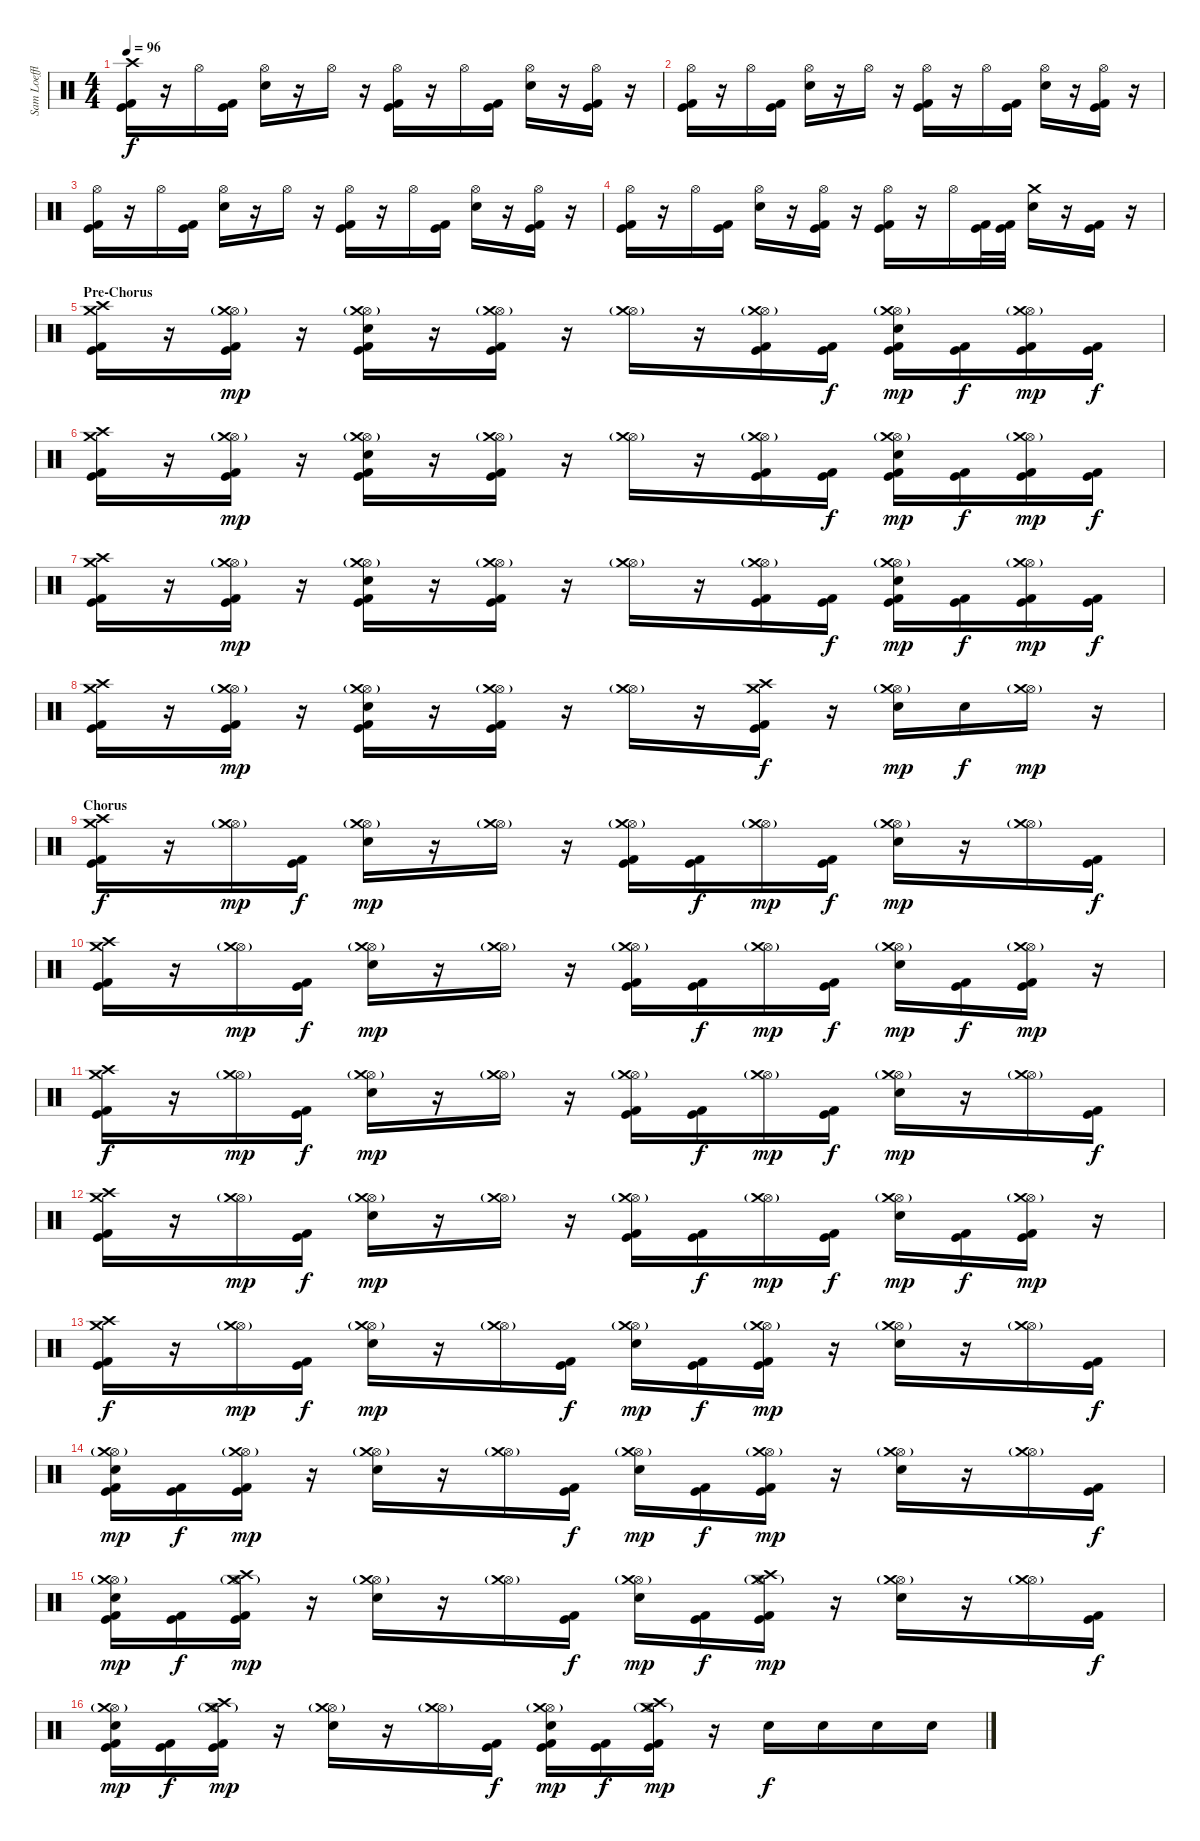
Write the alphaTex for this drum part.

\track ("Sam Loeffler - Drums" "Sam Loeffl") {instrument percussion}
\staff {score}
\articulation defaults
\ts (4 4)
\tempo 96
\clef neutral
\ks c
("Crash high (hit)" "Kick (hit)" "Kick (hit) 2").16{dy f} r.16 "Hi-Hat (open)".16 ("Kick (hit)" "Kick (hit) 2").16 ("Hi-Hat (open)" "Electric Snare (hit)").16 r.16 "Hi-Hat (open)".16 r.16 ("Hi-Hat (open)" "Kick (hit)" "Kick (hit) 2").16 r.16 "Hi-Hat (open)".16 ("Kick (hit)" "Kick (hit) 2").16 ("Hi-Hat (open)" "Electric Snare (hit)").16 r.16 ("Hi-Hat (open)" "Kick (hit)" "Kick (hit) 2").16 r.16 |
("Hi-Hat (open)" "Kick (hit)" "Kick (hit) 2").16 r.16 "Hi-Hat (open)".16 ("Kick (hit)" "Kick (hit) 2").16 ("Hi-Hat (open)" "Electric Snare (hit)").16 r.16 "Hi-Hat (open)".16 r.16 ("Hi-Hat (open)" "Kick (hit)" "Kick (hit) 2").16 r.16 "Hi-Hat (open)".16 ("Kick (hit)" "Kick (hit) 2").16 ("Hi-Hat (open)" "Electric Snare (hit)").16 r.16 ("Hi-Hat (open)" "Kick (hit)" "Kick (hit) 2").16 r.16 |
("Hi-Hat (open)" "Kick (hit)" "Kick (hit) 2").16 r.16 "Hi-Hat (open)".16 ("Kick (hit)" "Kick (hit) 2").16 ("Hi-Hat (open)" "Electric Snare (hit)").16 r.16 "Hi-Hat (open)".16 r.16 ("Hi-Hat (open)" "Kick (hit)" "Kick (hit) 2").16 r.16 "Hi-Hat (open)".16 ("Kick (hit)" "Kick (hit) 2").16 ("Hi-Hat (open)" "Electric Snare (hit)").16 r.16 ("Hi-Hat (open)" "Kick (hit)" "Kick (hit) 2").16 r.16 |
("Hi-Hat (open)" "Kick (hit)" "Kick (hit) 2").16 r.16 "Hi-Hat (open)".16 ("Kick (hit)" "Kick (hit) 2").16 ("Hi-Hat (open)" "Electric Snare (hit)").16 r.16 ("Hi-Hat (open)" "Kick (hit)" "Kick (hit) 2").16 r.16 ("Hi-Hat (open)" "Kick (hit)" "Kick (hit) 2").16 r.16 "Hi-Hat (open)".16 ("Kick (hit)" "Kick (hit) 2").32 ("Kick (hit)" "Kick (hit) 2").32 ("Crash medium (hit)" "Electric Snare (hit)").16 r.16 ("Kick (hit)" "Kick (hit) 2").16 r.16 |
\section ("" "Pre-Chorus")
("Crash high (hit)" "Crash medium (hit)" "Kick (hit)" "Kick (hit) 2").16 r.16 ("Hi-Hat (open)" "Crash medium (hit)"{g} "Kick (hit)" "Kick (hit) 2").16{dy mp} r.16 ("Hi-Hat (open)" "Crash medium (hit)"{g} "Electric Snare (hit)" "Kick (hit)" "Kick (hit) 2").16 r.16 ("Hi-Hat (open)" "Crash medium (hit)"{g} "Kick (hit)" "Kick (hit) 2").16 r.16 ("Hi-Hat (open)" "Crash medium (hit)"{g}).16 r.16 ("Hi-Hat (open)" "Crash medium (hit)"{g} "Kick (hit)" "Kick (hit) 2").16 ("Kick (hit)" "Kick (hit) 2").16{dy f} ("Hi-Hat (open)" "Crash medium (hit)"{g} "Electric Snare (hit)" "Kick (hit)" "Kick (hit) 2").16{dy mp} ("Kick (hit)" "Kick (hit) 2").16{dy f} ("Hi-Hat (open)" "Crash medium (hit)"{g} "Kick (hit)" "Kick (hit) 2").16{dy mp} ("Kick (hit)" "Kick (hit) 2").16{dy f} |
("Crash high (hit)" "Crash medium (hit)" "Kick (hit)" "Kick (hit) 2").16 r.16 ("Hi-Hat (open)" "Crash medium (hit)"{g} "Kick (hit)" "Kick (hit) 2").16{dy mp} r.16 ("Hi-Hat (open)" "Crash medium (hit)"{g} "Electric Snare (hit)" "Kick (hit)" "Kick (hit) 2").16 r.16 ("Hi-Hat (open)" "Crash medium (hit)"{g} "Kick (hit)" "Kick (hit) 2").16 r.16 ("Hi-Hat (open)" "Crash medium (hit)"{g}).16 r.16 ("Hi-Hat (open)" "Crash medium (hit)"{g} "Kick (hit)" "Kick (hit) 2").16 ("Kick (hit)" "Kick (hit) 2").16{dy f} ("Hi-Hat (open)" "Crash medium (hit)"{g} "Electric Snare (hit)" "Kick (hit)" "Kick (hit) 2").16{dy mp} ("Kick (hit)" "Kick (hit) 2").16{dy f} ("Hi-Hat (open)" "Crash medium (hit)"{g} "Kick (hit)" "Kick (hit) 2").16{dy mp} ("Kick (hit)" "Kick (hit) 2").16{dy f} |
("Crash high (hit)" "Crash medium (hit)" "Kick (hit)" "Kick (hit) 2").16 r.16 ("Hi-Hat (open)" "Crash medium (hit)"{g} "Kick (hit)" "Kick (hit) 2").16{dy mp} r.16 ("Hi-Hat (open)" "Crash medium (hit)"{g} "Electric Snare (hit)" "Kick (hit)" "Kick (hit) 2").16 r.16 ("Hi-Hat (open)" "Crash medium (hit)"{g} "Kick (hit)" "Kick (hit) 2").16 r.16 ("Hi-Hat (open)" "Crash medium (hit)"{g}).16 r.16 ("Hi-Hat (open)" "Crash medium (hit)"{g} "Kick (hit)" "Kick (hit) 2").16 ("Kick (hit)" "Kick (hit) 2").16{dy f} ("Hi-Hat (open)" "Crash medium (hit)"{g} "Electric Snare (hit)" "Kick (hit)" "Kick (hit) 2").16{dy mp} ("Kick (hit)" "Kick (hit) 2").16{dy f} ("Hi-Hat (open)" "Crash medium (hit)"{g} "Kick (hit)" "Kick (hit) 2").16{dy mp} ("Kick (hit)" "Kick (hit) 2").16{dy f} |
("Crash high (hit)" "Crash medium (hit)" "Kick (hit)" "Kick (hit) 2").16 r.16 ("Hi-Hat (open)" "Crash medium (hit)"{g} "Kick (hit)" "Kick (hit) 2").16{dy mp} r.16 ("Hi-Hat (open)" "Crash medium (hit)"{g} "Electric Snare (hit)" "Kick (hit)" "Kick (hit) 2").16 r.16 ("Hi-Hat (open)" "Crash medium (hit)"{g} "Kick (hit)" "Kick (hit) 2").16 r.16 ("Hi-Hat (open)" "Crash medium (hit)"{g}).16 r.16 ("Crash high (hit)" "Crash medium (hit)" "Kick (hit)" "Kick (hit) 2").16{dy f} r.16 ("Hi-Hat (open)" "Crash medium (hit)"{g} "Electric Snare (hit)").16{dy mp} "Electric Snare (hit)".16{dy f} ("Hi-Hat (open)" "Crash medium (hit)"{g}).16{dy mp} r.16 |
\section ("" "Chorus")
("Crash high (hit)" "Crash medium (hit)" "Kick (hit)" "Kick (hit) 2").16{dy f} r.16 ("Hi-Hat (open)" "Crash medium (hit)"{g}).16{dy mp} ("Kick (hit)" "Kick (hit) 2").16{dy f} ("Hi-Hat (open)" "Crash medium (hit)"{g} "Electric Snare (hit)").16{dy mp} r.16 ("Hi-Hat (open)" "Crash medium (hit)"{g}).16 r.16 ("Hi-Hat (open)" "Crash medium (hit)"{g} "Kick (hit)" "Kick (hit) 2").16 ("Kick (hit)" "Kick (hit) 2").16{dy f} ("Hi-Hat (open)" "Crash medium (hit)"{g}).16{dy mp} ("Kick (hit)" "Kick (hit) 2").16{dy f} ("Hi-Hat (open)" "Crash medium (hit)"{g} "Electric Snare (hit)").16{dy mp} r.16 ("Hi-Hat (open)" "Crash medium (hit)"{g}).16 ("Kick (hit)" "Kick (hit) 2").16{dy f} |
("Crash high (hit)" "Crash medium (hit)" "Kick (hit)" "Kick (hit) 2").16 r.16 ("Hi-Hat (open)" "Crash medium (hit)"{g}).16{dy mp} ("Kick (hit)" "Kick (hit) 2").16{dy f} ("Hi-Hat (open)" "Crash medium (hit)"{g} "Electric Snare (hit)").16{dy mp} r.16 ("Hi-Hat (open)" "Crash medium (hit)"{g}).16 r.16 ("Hi-Hat (open)" "Crash medium (hit)"{g} "Kick (hit)" "Kick (hit) 2").16 ("Kick (hit)" "Kick (hit) 2").16{dy f} ("Hi-Hat (open)" "Crash medium (hit)"{g}).16{dy mp} ("Kick (hit)" "Kick (hit) 2").16{dy f} ("Hi-Hat (open)" "Crash medium (hit)"{g} "Electric Snare (hit)").16{dy mp} ("Kick (hit)" "Kick (hit) 2").16{dy f} ("Hi-Hat (open)" "Crash medium (hit)"{g} "Kick (hit)" "Kick (hit) 2").16{dy mp} r.16 |
("Crash high (hit)" "Crash medium (hit)" "Kick (hit)" "Kick (hit) 2").16{dy f} r.16 ("Hi-Hat (open)" "Crash medium (hit)"{g}).16{dy mp} ("Kick (hit)" "Kick (hit) 2").16{dy f} ("Hi-Hat (open)" "Crash medium (hit)"{g} "Electric Snare (hit)").16{dy mp} r.16 ("Hi-Hat (open)" "Crash medium (hit)"{g}).16 r.16 ("Hi-Hat (open)" "Crash medium (hit)"{g} "Kick (hit)" "Kick (hit) 2").16 ("Kick (hit)" "Kick (hit) 2").16{dy f} ("Hi-Hat (open)" "Crash medium (hit)"{g}).16{dy mp} ("Kick (hit)" "Kick (hit) 2").16{dy f} ("Hi-Hat (open)" "Crash medium (hit)"{g} "Electric Snare (hit)").16{dy mp} r.16 ("Hi-Hat (open)" "Crash medium (hit)"{g}).16 ("Kick (hit)" "Kick (hit) 2").16{dy f} |
("Crash high (hit)" "Crash medium (hit)" "Kick (hit)" "Kick (hit) 2").16 r.16 ("Hi-Hat (open)" "Crash medium (hit)"{g}).16{dy mp} ("Kick (hit)" "Kick (hit) 2").16{dy f} ("Hi-Hat (open)" "Crash medium (hit)"{g} "Electric Snare (hit)").16{dy mp} r.16 ("Hi-Hat (open)" "Crash medium (hit)"{g}).16 r.16 ("Hi-Hat (open)" "Crash medium (hit)"{g} "Kick (hit)" "Kick (hit) 2").16 ("Kick (hit)" "Kick (hit) 2").16{dy f} ("Hi-Hat (open)" "Crash medium (hit)"{g}).16{dy mp} ("Kick (hit)" "Kick (hit) 2").16{dy f} ("Hi-Hat (open)" "Crash medium (hit)"{g} "Electric Snare (hit)").16{dy mp} ("Kick (hit)" "Kick (hit) 2").16{dy f} ("Hi-Hat (open)" "Crash medium (hit)"{g} "Kick (hit)" "Kick (hit) 2").16{dy mp} r.16 |
("Crash high (hit)" "Crash medium (hit)" "Kick (hit)" "Kick (hit) 2").16{dy f} r.16 ("Hi-Hat (open)" "Crash medium (hit)"{g}).16{dy mp} ("Kick (hit)" "Kick (hit) 2").16{dy f} ("Hi-Hat (open)" "Crash medium (hit)"{g} "Electric Snare (hit)").16{dy mp} r.16 ("Hi-Hat (open)" "Crash medium (hit)"{g}).16 ("Kick (hit)" "Kick (hit) 2").16{dy f} ("Hi-Hat (open)" "Crash medium (hit)"{g} "Electric Snare (hit)").16{dy mp} ("Kick (hit)" "Kick (hit) 2").16{dy f} ("Hi-Hat (open)" "Crash medium (hit)"{g} "Kick (hit)" "Kick (hit) 2").16{dy mp} r.16 ("Hi-Hat (open)" "Crash medium (hit)"{g} "Electric Snare (hit)").16 r.16 ("Hi-Hat (open)" "Crash medium (hit)"{g}).16 ("Kick (hit)" "Kick (hit) 2").16{dy f} |
("Hi-Hat (open)" "Crash medium (hit)"{g} "Electric Snare (hit)" "Kick (hit)" "Kick (hit) 2").16{dy mp} ("Kick (hit)" "Kick (hit) 2").16{dy f} ("Hi-Hat (open)" "Crash medium (hit)"{g} "Kick (hit)" "Kick (hit) 2").16{dy mp} r.16 ("Hi-Hat (open)" "Crash medium (hit)"{g} "Electric Snare (hit)").16 r.16 ("Hi-Hat (open)" "Crash medium (hit)"{g}).16 ("Kick (hit)" "Kick (hit) 2").16{dy f} ("Hi-Hat (open)" "Crash medium (hit)"{g} "Electric Snare (hit)").16{dy mp} ("Kick (hit)" "Kick (hit) 2").16{dy f} ("Hi-Hat (open)" "Crash medium (hit)"{g} "Kick (hit)" "Kick (hit) 2").16{dy mp} r.16 ("Hi-Hat (open)" "Crash medium (hit)"{g} "Electric Snare (hit)").16 r.16 ("Hi-Hat (open)" "Crash medium (hit)"{g}).16 ("Kick (hit)" "Kick (hit) 2").16{dy f} |
("Hi-Hat (open)" "Crash medium (hit)"{g} "Electric Snare (hit)" "Kick (hit)" "Kick (hit) 2").16{dy mp} ("Kick (hit)" "Kick (hit) 2").16{dy f} ("Hi-Hat (open)" "Crash medium (hit)"{g} "Crash high (hit)" "Kick (hit)" "Kick (hit) 2").16{dy mp} r.16 ("Hi-Hat (open)" "Crash medium (hit)"{g} "Electric Snare (hit)").16 r.16 ("Hi-Hat (open)" "Crash medium (hit)"{g}).16 ("Kick (hit)" "Kick (hit) 2").16{dy f} ("Hi-Hat (open)" "Crash medium (hit)"{g} "Electric Snare (hit)").16{dy mp} ("Kick (hit)" "Kick (hit) 2").16{dy f} ("Hi-Hat (open)" "Crash medium (hit)"{g} "Crash high (hit)" "Kick (hit)" "Kick (hit) 2").16{dy mp} r.16 ("Hi-Hat (open)" "Crash medium (hit)"{g} "Electric Snare (hit)").16 r.16 ("Hi-Hat (open)" "Crash medium (hit)"{g}).16 ("Kick (hit)" "Kick (hit) 2").16{dy f} |
("Hi-Hat (open)" "Crash medium (hit)"{g} "Electric Snare (hit)" "Kick (hit)" "Kick (hit) 2").16{dy mp} ("Kick (hit)" "Kick (hit) 2").16{dy f} ("Hi-Hat (open)" "Crash medium (hit)"{g} "Crash high (hit)" "Kick (hit)" "Kick (hit) 2").16{dy mp} r.16 ("Hi-Hat (open)" "Crash medium (hit)"{g} "Electric Snare (hit)").16 r.16 ("Hi-Hat (open)" "Crash medium (hit)"{g}).16 ("Kick (hit)" "Kick (hit) 2").16{dy f} ("Hi-Hat (open)" "Crash medium (hit)"{g} "Electric Snare (hit)" "Kick (hit)" "Kick (hit) 2").16{dy mp} ("Kick (hit)" "Kick (hit) 2").16{dy f} ("Hi-Hat (open)" "Crash medium (hit)"{g} "Crash high (hit)" "Kick (hit)" "Kick (hit) 2").16{dy mp} r.16 "Electric Snare (hit)".16{dy f} "Electric Snare (hit)".16 "Electric Snare (hit)".16 "Electric Snare (hit)".16
